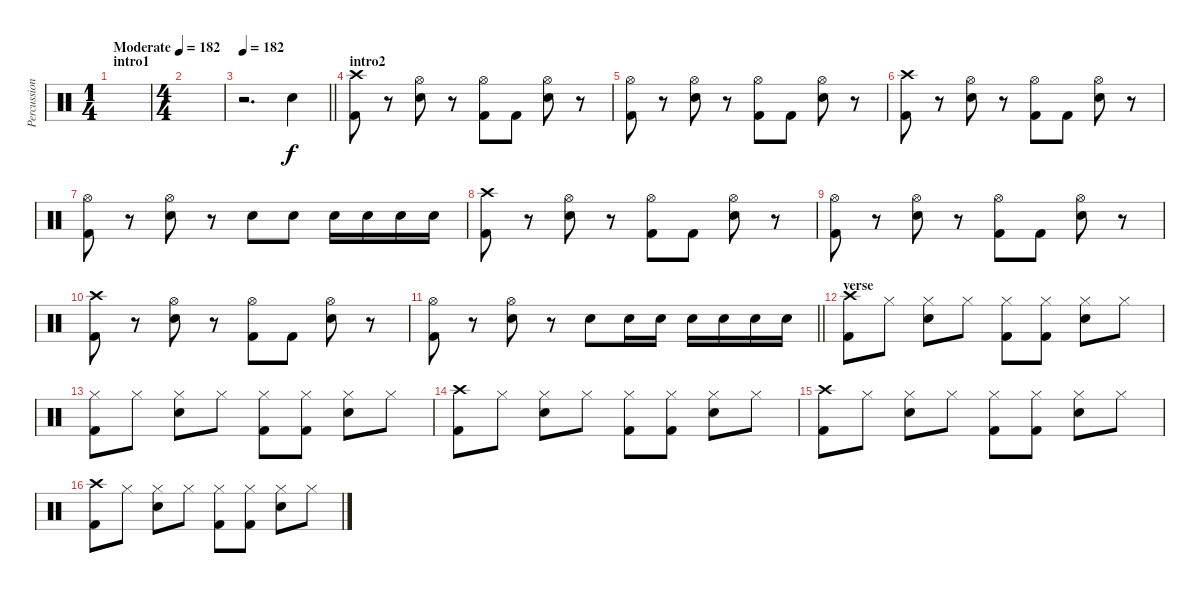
\track ("Percussion" "Percussion") {instrument percussion}
\staff {score}
\articulation defaults
\ts (1 4)
\section ("" "intro1")
\tempo (182 "Moderate")
\tempo 138
\tempo (182 "Moderate")
\clef neutral
\ks c
|
\ts (4 4)
|
\tempo 182
\barLineRight lightlight
r.2{d} "Snare (hit) 2".4 |
\section ("" "intro2")
("Crash high (hit)" "Kick (hit) 2").8 r.8 ("Hi-Hat (open)" "Snare (hit) 2").8 r.8 ("Hi-Hat (open)" "Kick (hit) 2").8 "Kick (hit) 2".8 ("Hi-Hat (open)" "Snare (hit) 2").8 r.8 |
("Hi-Hat (open)" "Kick (hit) 2").8 r.8 ("Hi-Hat (open)" "Snare (hit) 2").8 r.8 ("Hi-Hat (open)" "Kick (hit) 2").8 "Kick (hit) 2".8 ("Hi-Hat (open)" "Snare (hit) 2").8 r.8 |
("Crash high (hit)" "Kick (hit) 2").8 r.8 ("Hi-Hat (open)" "Snare (hit) 2").8 r.8 ("Hi-Hat (open)" "Kick (hit) 2").8 "Kick (hit) 2".8 ("Hi-Hat (open)" "Snare (hit) 2").8 r.8 |
("Hi-Hat (open)" "Kick (hit) 2").8 r.8 ("Hi-Hat (open)" "Snare (hit) 2").8 r.8 "Snare (hit) 2".8 "Snare (hit) 2".8 "Snare (hit) 2".16 "Snare (hit) 2".16 "Snare (hit) 2".16 "Snare (hit) 2".16 |
("Crash high (hit)" "Kick (hit) 2").8 r.8 ("Hi-Hat (open)" "Snare (hit) 2").8 r.8 ("Hi-Hat (open)" "Kick (hit) 2").8 "Kick (hit) 2".8 ("Hi-Hat (open)" "Snare (hit) 2").8 r.8 |
("Hi-Hat (open)" "Kick (hit) 2").8 r.8 ("Hi-Hat (open)" "Snare (hit) 2").8 r.8 ("Hi-Hat (open)" "Kick (hit) 2").8 "Kick (hit) 2".8 ("Hi-Hat (open)" "Snare (hit) 2").8 r.8 |
("Crash high (hit)" "Kick (hit) 2").8 r.8 ("Hi-Hat (open)" "Snare (hit) 2").8 r.8 ("Hi-Hat (open)" "Kick (hit) 2").8 "Kick (hit) 2".8 ("Hi-Hat (open)" "Snare (hit) 2").8 r.8 |
\barLineRight lightlight
("Hi-Hat (open)" "Kick (hit) 2").8 r.8 ("Hi-Hat (open)" "Snare (hit) 2").8 r.8 "Snare (hit) 2".8 "Snare (hit) 2".16 "Snare (hit) 2".16 "Snare (hit) 2".16 "Snare (hit) 2".16 "Snare (hit) 2".16 "Snare (hit) 2".16 |
\section ("" "verse")
("Crash high (hit)" "Kick (hit) 2").8 "Hi-Hat (closed)".8 ("Hi-Hat (closed)" "Snare (hit) 2").8 "Hi-Hat (closed)".8 ("Hi-Hat (closed)" "Kick (hit) 2").8 ("Hi-Hat (closed)" "Kick (hit) 2").8 ("Hi-Hat (closed)" "Snare (hit) 2").8 "Hi-Hat (closed)".8 |
("Hi-Hat (closed)" "Kick (hit) 2").8 "Hi-Hat (closed)".8 ("Hi-Hat (closed)" "Snare (hit) 2").8 "Hi-Hat (closed)".8 ("Hi-Hat (closed)" "Kick (hit) 2").8 ("Hi-Hat (closed)" "Kick (hit) 2").8 ("Hi-Hat (closed)" "Snare (hit) 2").8 "Hi-Hat (closed)".8 |
("Crash high (hit)" "Kick (hit) 2").8 "Hi-Hat (closed)".8 ("Hi-Hat (closed)" "Snare (hit) 2").8 "Hi-Hat (closed)".8 ("Hi-Hat (closed)" "Kick (hit) 2").8 ("Hi-Hat (closed)" "Kick (hit) 2").8 ("Hi-Hat (closed)" "Snare (hit) 2").8 "Hi-Hat (closed)".8 |
("Crash high (hit)" "Kick (hit) 2").8 "Hi-Hat (closed)".8 ("Hi-Hat (closed)" "Snare (hit) 2").8 "Hi-Hat (closed)".8 ("Hi-Hat (closed)" "Kick (hit) 2").8 ("Hi-Hat (closed)" "Kick (hit) 2").8 ("Hi-Hat (closed)" "Snare (hit) 2").8 "Hi-Hat (closed)".8 |
("Crash high (hit)" "Kick (hit) 2").8 "Hi-Hat (closed)".8 ("Hi-Hat (closed)" "Snare (hit) 2").8 "Hi-Hat (closed)".8 ("Hi-Hat (closed)" "Kick (hit) 2").8 ("Hi-Hat (closed)" "Kick (hit) 2").8 ("Hi-Hat (closed)" "Snare (hit) 2").8 "Hi-Hat (closed)".8
